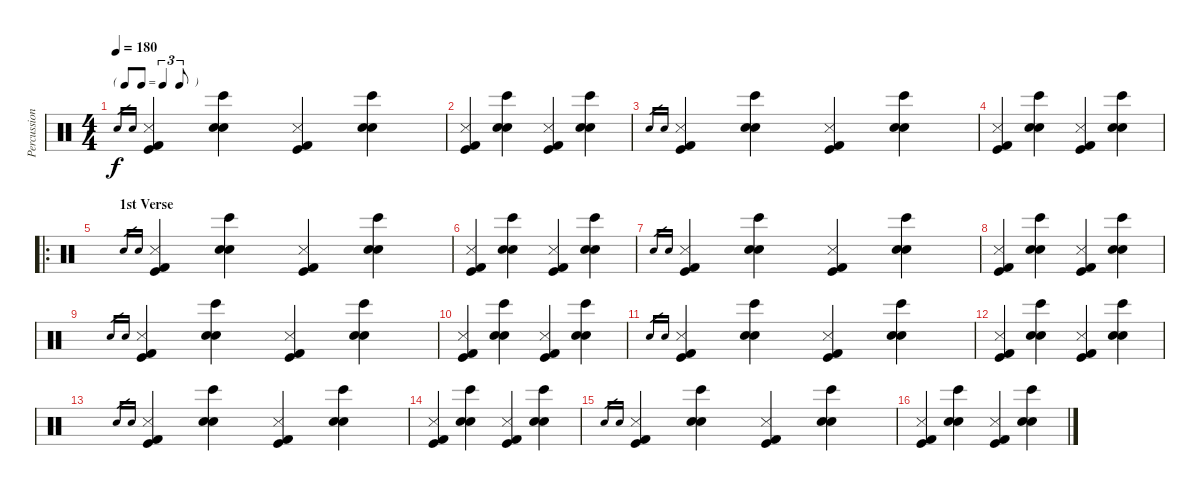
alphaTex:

\track ("Percussion" "Percussion") {instrument percussion}
\staff {score}
\articulation defaults
\ts (4 4)
\tf triplet8th
\tempo 180
\clef neutral
\ks c "Electric Snare (hit)".16{gr dy f} "Snare (hit) 2".16{gr}
("Snare (side stick) 3" "Kick (hit)" "Kick (hit) 2").4 ("Bongo High (hit)" "Electric Snare (hit)" "Snare (hit) 2").4 ("Snare (side stick) 3" "Kick (hit)" "Kick (hit) 2").4 ("Bongo High (hit)" "Electric Snare (hit)" "Snare (hit) 2").4 |
("Snare (side stick) 3" "Kick (hit)" "Kick (hit) 2").4 ("Bongo High (hit)" "Electric Snare (hit)" "Snare (hit) 2").4 ("Snare (side stick) 3" "Kick (hit)" "Kick (hit) 2").4 ("Bongo High (hit)" "Electric Snare (hit)" "Snare (hit) 2").4 |
"Electric Snare (hit)".16{gr} "Snare (hit) 2".16{gr} ("Snare (side stick) 3" "Kick (hit)" "Kick (hit) 2").4 ("Bongo High (hit)" "Electric Snare (hit)" "Snare (hit) 2").4 ("Snare (side stick) 3" "Kick (hit)" "Kick (hit) 2").4 ("Bongo High (hit)" "Electric Snare (hit)" "Snare (hit) 2").4 |
("Snare (side stick) 3" "Kick (hit)" "Kick (hit) 2").4 ("Bongo High (hit)" "Electric Snare (hit)" "Snare (hit) 2").4 ("Snare (side stick) 3" "Kick (hit)" "Kick (hit) 2").4 ("Bongo High (hit)" "Electric Snare (hit)" "Snare (hit) 2").4 |
\ro
\section ("" "1st Verse")
"Electric Snare (hit)".16{gr} "Snare (hit) 2".16{gr} ("Snare (side stick) 3" "Kick (hit)" "Kick (hit) 2").4 ("Bongo High (hit)" "Electric Snare (hit)" "Snare (hit) 2").4 ("Snare (side stick) 3" "Kick (hit)" "Kick (hit) 2").4 ("Bongo High (hit)" "Electric Snare (hit)" "Snare (hit) 2").4 |
("Snare (side stick) 3" "Kick (hit)" "Kick (hit) 2").4 ("Bongo High (hit)" "Electric Snare (hit)" "Snare (hit) 2").4 ("Snare (side stick) 3" "Kick (hit)" "Kick (hit) 2").4 ("Bongo High (hit)" "Electric Snare (hit)" "Snare (hit) 2").4 |
"Electric Snare (hit)".16{gr} "Snare (hit) 2".16{gr} ("Snare (side stick) 3" "Kick (hit)" "Kick (hit) 2").4 ("Bongo High (hit)" "Electric Snare (hit)" "Snare (hit) 2").4 ("Snare (side stick) 3" "Kick (hit)" "Kick (hit) 2").4 ("Bongo High (hit)" "Electric Snare (hit)" "Snare (hit) 2").4 |
("Snare (side stick) 3" "Kick (hit)" "Kick (hit) 2").4 ("Bongo High (hit)" "Electric Snare (hit)" "Snare (hit) 2").4 ("Snare (side stick) 3" "Kick (hit)" "Kick (hit) 2").4 ("Bongo High (hit)" "Electric Snare (hit)" "Snare (hit) 2").4 |
"Electric Snare (hit)".16{gr} "Snare (hit) 2".16{gr} ("Snare (side stick) 3" "Kick (hit)" "Kick (hit) 2").4 ("Bongo High (hit)" "Electric Snare (hit)" "Snare (hit) 2").4 ("Snare (side stick) 3" "Kick (hit)" "Kick (hit) 2").4 ("Bongo High (hit)" "Electric Snare (hit)" "Snare (hit) 2").4 |
("Snare (side stick) 3" "Kick (hit)" "Kick (hit) 2").4 ("Bongo High (hit)" "Electric Snare (hit)" "Snare (hit) 2").4 ("Snare (side stick) 3" "Kick (hit)" "Kick (hit) 2").4 ("Bongo High (hit)" "Electric Snare (hit)" "Snare (hit) 2").4 |
"Electric Snare (hit)".16{gr} "Snare (hit) 2".16{gr} ("Snare (side stick) 3" "Kick (hit)" "Kick (hit) 2").4 ("Bongo High (hit)" "Electric Snare (hit)" "Snare (hit) 2").4 ("Snare (side stick) 3" "Kick (hit)" "Kick (hit) 2").4 ("Bongo High (hit)" "Electric Snare (hit)" "Snare (hit) 2").4 |
("Snare (side stick) 3" "Kick (hit)" "Kick (hit) 2").4 ("Bongo High (hit)" "Electric Snare (hit)" "Snare (hit) 2").4 ("Snare (side stick) 3" "Kick (hit)" "Kick (hit) 2").4 ("Bongo High (hit)" "Electric Snare (hit)" "Snare (hit) 2").4 |
"Electric Snare (hit)".16{gr} "Snare (hit) 2".16{gr} ("Snare (side stick) 3" "Kick (hit)" "Kick (hit) 2").4 ("Bongo High (hit)" "Electric Snare (hit)" "Snare (hit) 2").4 ("Snare (side stick) 3" "Kick (hit)" "Kick (hit) 2").4 ("Bongo High (hit)" "Electric Snare (hit)" "Snare (hit) 2").4 |
("Snare (side stick) 3" "Kick (hit)" "Kick (hit) 2").4 ("Bongo High (hit)" "Electric Snare (hit)" "Snare (hit) 2").4 ("Snare (side stick) 3" "Kick (hit)" "Kick (hit) 2").4 ("Bongo High (hit)" "Electric Snare (hit)" "Snare (hit) 2").4 |
"Electric Snare (hit)".16{gr} "Snare (hit) 2".16{gr} ("Snare (side stick) 3" "Kick (hit)" "Kick (hit) 2").4 ("Bongo High (hit)" "Electric Snare (hit)" "Snare (hit) 2").4 ("Snare (side stick) 3" "Kick (hit)" "Kick (hit) 2").4 ("Bongo High (hit)" "Electric Snare (hit)" "Snare (hit) 2").4 |
("Snare (side stick) 3" "Kick (hit)" "Kick (hit) 2").4 ("Bongo High (hit)" "Electric Snare (hit)" "Snare (hit) 2").4 ("Snare (side stick) 3" "Kick (hit)" "Kick (hit) 2").4 ("Bongo High (hit)" "Electric Snare (hit)" "Snare (hit) 2").4
